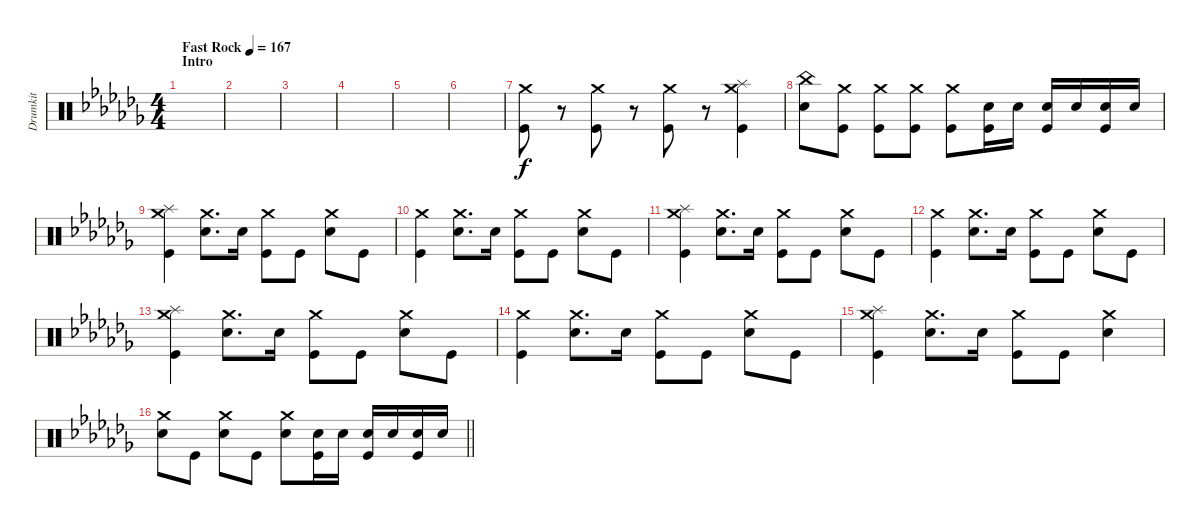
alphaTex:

\track ("Drumkit" "Drumkit") {instrument percussion}
\staff {score}
\articulation defaults
\ts (4 4)
\section ("" "Intro")
\tempo (167 "Fast Rock")
\clef neutral
\ks abminor
|
|
|
|
|
|
("Kick (hit)" "Crash medium (hit)").8 r.8 ("Kick (hit)" "Crash medium (hit)").8 r.8 ("Kick (hit)" "Crash medium (hit)").8 r.8 ("Kick (hit)" "Crash medium (hit)" "Splash (hit)").4 |
("Snare (hit) 2" "China (hit)").8 ("Kick (hit)" "Crash medium (hit)").8 ("Kick (hit)" "Crash medium (hit)").8 ("Kick (hit)" "Crash medium (hit)").8 ("Kick (hit)" "Crash medium (hit)").8 ("Kick (hit)" "Snare (hit) 2").16 "Snare (hit) 2".16 ("Kick (hit)" "Snare (hit) 2").16 "Snare (hit) 2".16 ("Snare (hit) 2" "Kick (hit)").16 "Snare (hit) 2".16 |
("Crash medium (hit)" "Kick (hit)" "Splash (hit)").4 ("Snare (hit) 2" "Crash medium (hit)").8{d} "Snare (hit) 2".16 ("Kick (hit)" "Crash medium (hit)").8 "Kick (hit)".8 ("Snare (hit) 2" "Crash medium (hit)").8 "Kick (hit)".8 |
("Crash medium (hit)" "Kick (hit)").4 ("Snare (hit) 2" "Crash medium (hit)").8{d} "Snare (hit) 2".16 ("Kick (hit)" "Crash medium (hit)").8 "Kick (hit)".8 ("Snare (hit) 2" "Crash medium (hit)").8 "Kick (hit)".8 |
("Crash medium (hit)" "Kick (hit)" "Splash (hit)").4 ("Snare (hit) 2" "Crash medium (hit)").8{d} "Snare (hit) 2".16 ("Kick (hit)" "Crash medium (hit)").8 "Kick (hit)".8 ("Snare (hit) 2" "Crash medium (hit)").8 "Kick (hit)".8 |
("Crash medium (hit)" "Kick (hit)").4 ("Snare (hit) 2" "Crash medium (hit)").8{d} "Snare (hit) 2".16 ("Kick (hit)" "Crash medium (hit)").8 "Kick (hit)".8 ("Snare (hit) 2" "Crash medium (hit)").8 "Kick (hit)".8 |
("Crash medium (hit)" "Kick (hit)" "Splash (hit)").4 ("Snare (hit) 2" "Crash medium (hit)").8{d} "Snare (hit) 2".16 ("Kick (hit)" "Crash medium (hit)").8 "Kick (hit)".8 ("Snare (hit) 2" "Crash medium (hit)").8 "Kick (hit)".8 |
("Crash medium (hit)" "Kick (hit)").4 ("Snare (hit) 2" "Crash medium (hit)").8{d} "Snare (hit) 2".16 ("Kick (hit)" "Crash medium (hit)").8 "Kick (hit)".8 ("Snare (hit) 2" "Crash medium (hit)").8 "Kick (hit)".8 |
("Crash medium (hit)" "Kick (hit)" "Splash (hit)").4 ("Snare (hit) 2" "Crash medium (hit)").8{d} "Snare (hit) 2".16 ("Kick (hit)" "Crash medium (hit)").8 "Kick (hit)".8 ("Snare (hit) 2" "Crash medium (hit)").4 |
\barLineRight lightlight
("Snare (hit) 2" "Crash medium (hit)").8 "Kick (hit)".8 ("Snare (hit) 2" "Crash medium (hit)").8 "Kick (hit)".8 ("Snare (hit) 2" "Crash medium (hit)").8 ("Kick (hit)" "Snare (hit) 2").16 "Snare (hit) 2".16 ("Snare (hit) 2" "Kick (hit)").16 "Snare (hit) 2".16 ("Snare (hit) 2" "Kick (hit)").16 "Snare (hit) 2".16
